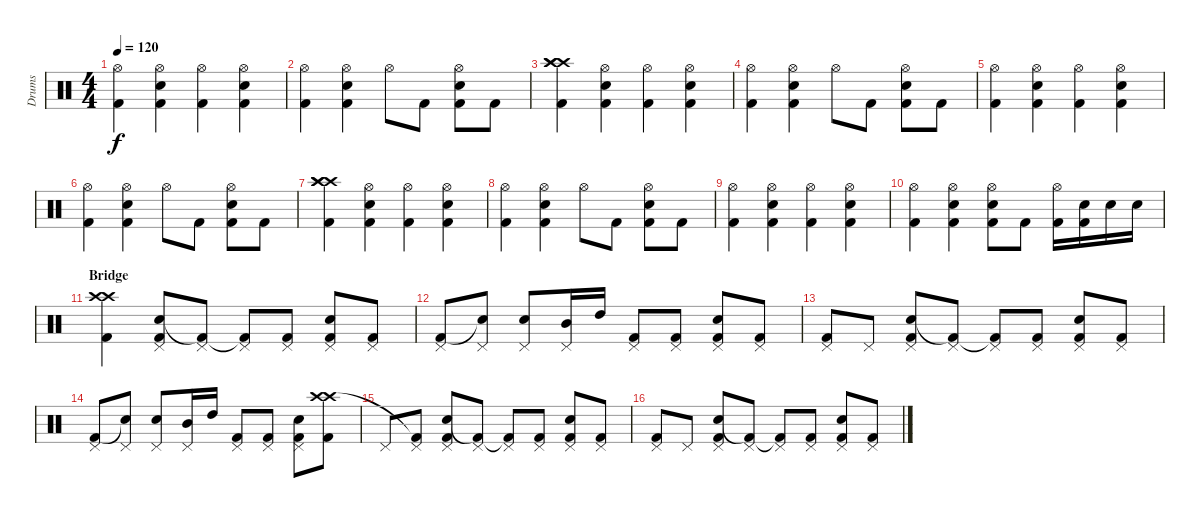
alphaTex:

\track ("Drums" "Drums") {instrument percussion}
\staff {score}
\articulation defaults
\ts (4 4)
\tempo 120
\clef neutral
\ks c
("Hi-Hat (open)" "Kick (hit) 2").4{dy f} ("Hi-Hat (open)" "Electric Snare (hit)" "Kick (hit) 2").4 ("Hi-Hat (open)" "Kick (hit) 2").4 ("Hi-Hat (open)" "Electric Snare (hit)" "Kick (hit) 2").4 |
("Hi-Hat (open)" "Kick (hit) 2").4 ("Hi-Hat (open)" "Electric Snare (hit)" "Kick (hit) 2").4 "Hi-Hat (open)".8 "Kick (hit) 2".8 ("Hi-Hat (open)" "Electric Snare (hit)" "Kick (hit) 2").8 "Kick (hit) 2".8 |
("Crash high (hit)" "Crash high (hit)" "Crash high (hit)" "Kick (hit) 2").4 ("Hi-Hat (open)" "Electric Snare (hit)" "Kick (hit) 2").4 ("Hi-Hat (open)" "Kick (hit) 2").4 ("Hi-Hat (open)" "Electric Snare (hit)" "Kick (hit) 2").4 |
("Hi-Hat (open)" "Kick (hit) 2").4 ("Hi-Hat (open)" "Electric Snare (hit)" "Kick (hit) 2").4 "Hi-Hat (open)".8 "Kick (hit) 2".8 ("Hi-Hat (open)" "Electric Snare (hit)" "Kick (hit) 2").8 "Kick (hit) 2".8 |
("Hi-Hat (open)" "Kick (hit) 2").4 ("Hi-Hat (open)" "Electric Snare (hit)" "Kick (hit) 2").4 ("Hi-Hat (open)" "Kick (hit) 2").4 ("Hi-Hat (open)" "Electric Snare (hit)" "Kick (hit) 2").4 |
("Hi-Hat (open)" "Kick (hit) 2").4 ("Hi-Hat (open)" "Electric Snare (hit)" "Kick (hit) 2").4 "Hi-Hat (open)".8 "Kick (hit) 2".8 ("Hi-Hat (open)" "Electric Snare (hit)" "Kick (hit) 2").8 "Kick (hit) 2".8 |
("Crash high (hit)" "Crash high (hit)" "Crash high (hit)" "Kick (hit) 2").4 ("Hi-Hat (open)" "Electric Snare (hit)" "Kick (hit) 2").4 ("Hi-Hat (open)" "Kick (hit) 2").4 ("Hi-Hat (open)" "Electric Snare (hit)" "Kick (hit) 2").4 |
("Hi-Hat (open)" "Kick (hit) 2").4 ("Hi-Hat (open)" "Electric Snare (hit)" "Kick (hit) 2").4 "Hi-Hat (open)".8 "Kick (hit) 2".8 ("Hi-Hat (open)" "Electric Snare (hit)" "Kick (hit) 2").8 "Kick (hit) 2".8 |
("Hi-Hat (open)" "Kick (hit) 2").4 ("Hi-Hat (open)" "Electric Snare (hit)" "Kick (hit) 2").4 ("Hi-Hat (open)" "Kick (hit) 2").4 ("Hi-Hat (open)" "Electric Snare (hit)" "Kick (hit) 2").4 |
("Hi-Hat (open)" "Kick (hit) 2").4 ("Hi-Hat (open)" "Electric Snare (hit)" "Kick (hit) 2").4 ("Hi-Hat (open)" "Electric Snare (hit)" "Kick (hit) 2").8 "Kick (hit) 2".8 ("Hi-Hat (open)" "Kick (hit) 2").16 ("Electric Snare (hit)" "Kick (hit) 2").16 "Electric Snare (hit)".16 "Snare (hit) 2".16 |
\section ("" "Bridge")
("Crash high (hit)" "Crash high (hit)" "Kick (hit) 2").4 ("Pedal Hi-Hat (hit)" "Electric Snare (hit)" "Kick (hit) 2").8 ("Pedal Hi-Hat (hit)" "Kick (hit) 2"{t}).8 ("Pedal Hi-Hat (hit)" "Kick (hit) 2"{t}).8 ("Pedal Hi-Hat (hit)" "Kick (hit) 2").8 ("Pedal Hi-Hat (hit)" "Electric Snare (hit)" "Kick (hit) 2").8 ("Pedal Hi-Hat (hit)" "Kick (hit) 2").8 |
("Pedal Hi-Hat (hit)" "Kick (hit) 2").8 ("Pedal Hi-Hat (hit)" "Electric Snare (hit)"{t}).8 ("Pedal Hi-Hat (hit)" "Electric Snare (hit)").8 ("Pedal Hi-Hat (hit)" "Mid Tom (hit)").16 "High Tom (hit)".16 ("Pedal Hi-Hat (hit)" "Kick (hit) 2").8 ("Pedal Hi-Hat (hit)" "Kick (hit) 2").8 ("Pedal Hi-Hat (hit)" "Electric Snare (hit)" "Kick (hit) 2").8 ("Pedal Hi-Hat (hit)" "Kick (hit) 2").8 |
("Pedal Hi-Hat (hit)" "Kick (hit) 2").8 "Pedal Hi-Hat (hit)".8 ("Pedal Hi-Hat (hit)" "Electric Snare (hit)" "Kick (hit) 2").8 ("Pedal Hi-Hat (hit)" "Kick (hit) 2"{t}).8 ("Pedal Hi-Hat (hit)" "Kick (hit) 2"{t}).8 ("Pedal Hi-Hat (hit)" "Kick (hit) 2").8 ("Pedal Hi-Hat (hit)" "Electric Snare (hit)" "Kick (hit) 2").8 ("Pedal Hi-Hat (hit)" "Kick (hit) 2").8 |
("Pedal Hi-Hat (hit)" "Kick (hit) 2").8 ("Pedal Hi-Hat (hit)" "Electric Snare (hit)"{t}).8 ("Pedal Hi-Hat (hit)" "Electric Snare (hit)").8 ("Pedal Hi-Hat (hit)" "Mid Tom (hit)").16 "High Tom (hit)".16 ("Pedal Hi-Hat (hit)" "Kick (hit) 2").8 ("Pedal Hi-Hat (hit)" "Kick (hit) 2").8 ("Pedal Hi-Hat (hit)" "Electric Snare (hit)" "Kick (hit) 2").8 ("Crash high (hit)" "Crash high (hit)" "Kick (hit) 2").8 |
"Pedal Hi-Hat (hit)".8 ("Pedal Hi-Hat (hit)" "Kick (hit) 2"{t}).8 ("Pedal Hi-Hat (hit)" "Electric Snare (hit)" "Kick (hit) 2").8 ("Pedal Hi-Hat (hit)" "Kick (hit) 2"{t}).8 ("Pedal Hi-Hat (hit)" "Kick (hit) 2"{t}).8 ("Pedal Hi-Hat (hit)" "Kick (hit) 2").8 ("Pedal Hi-Hat (hit)" "Electric Snare (hit)" "Kick (hit) 2").8 ("Pedal Hi-Hat (hit)" "Kick (hit) 2").8 |
("Pedal Hi-Hat (hit)" "Kick (hit) 2").8 "Pedal Hi-Hat (hit)".8 ("Pedal Hi-Hat (hit)" "Electric Snare (hit)" "Kick (hit) 2").8 ("Pedal Hi-Hat (hit)" "Kick (hit) 2"{t}).8 ("Pedal Hi-Hat (hit)" "Kick (hit) 2"{t}).8 ("Pedal Hi-Hat (hit)" "Kick (hit) 2").8 ("Pedal Hi-Hat (hit)" "Electric Snare (hit)" "Kick (hit) 2").8 ("Pedal Hi-Hat (hit)" "Kick (hit) 2").8
